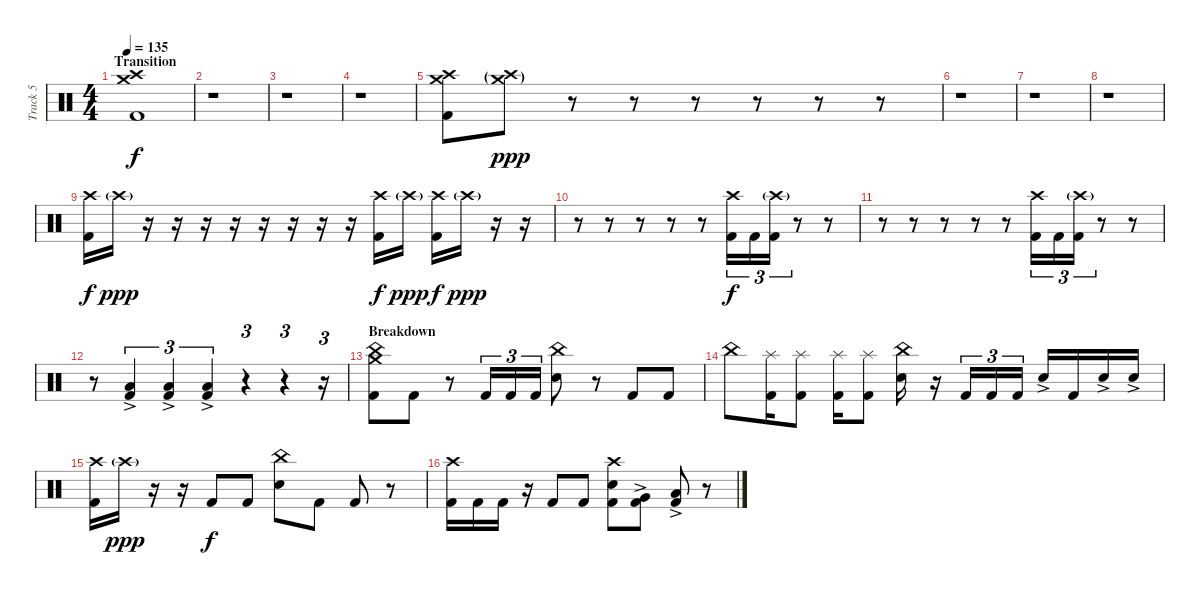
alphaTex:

\track ("Track 5" "Track 5") {instrument percussion}
\staff {score}
\articulation defaults
\ts (4 4)
\section ("" "Transition")
\tempo 135
\clef neutral
\ks c
("Crash medium (hit)" "Crash high (hit)" "Kick (hit) 2").1{dy f} |
r.1 |
r.1 |
r.1 |
("Crash medium (hit)" "Crash high (hit)" "Kick (hit) 2").8 ("Crash medium (hit)"{g} "Crash high (hit)"{g}).8{dy ppp} r.8 r.8 r.8 r.8 r.8 r.8 |
r.1 |
r.1 |
r.1 |
("Crash high (hit)" "Kick (hit) 2").16{dy f} "Crash high (hit)"{g}.16{dy ppp} r.16 r.16 r.16 r.16 r.16 r.16 r.16 r.16 ("Crash high (hit)" "Kick (hit) 2").16{dy f} "Crash high (hit)"{g}.16{dy ppp} ("Crash high (hit)" "Kick (hit) 2").16{dy f} "Crash high (hit)"{g}.16{dy ppp} r.16 r.16 |
r.8 r.8 r.8 r.8 r.8 ("Crash high (hit)" "Kick (hit) 2").16{tu (3 2) dy f} "Kick (hit) 2".16{tu (3 2)} ("Crash high (hit)"{g} "Kick (hit) 2").16{tu (3 2)} r.8 r.8 |
r.8 r.8 r.8 r.8 r.8 ("Crash high (hit)" "Kick (hit) 2").16{tu (3 2)} "Kick (hit) 2".16{tu (3 2)} ("Crash high (hit)"{g} "Kick (hit) 2").16{tu (3 2)} r.8 r.8 |
r.8 ("Low Floor Tom (hit)"{ac} "Kick (hit) 2").4{tu (3 2)} ("Low Floor Tom (hit)"{ac} "Kick (hit) 2").4{tu (3 2)} ("Low Floor Tom (hit)"{ac} "Kick (hit) 2").4{tu (3 2)} r.4{tu (3 2)} r.4{tu (3 2)} r.16{tu (3 2)} |
\section ("" "Breakdown")
("Crash medium (hit)" "China (hit)" "Kick (hit) 2").8 "Kick (hit) 2".8 r.8 "Kick (hit) 2".16{tu (3 2)} "Kick (hit) 2".16{tu (3 2)} "Kick (hit) 2".16{tu (3 2)} ("Electric Snare (hit)" "China (hit)").8 r.8 "Kick (hit) 2".8 "Kick (hit) 2".8 |
"China (hit)".8 ("Splash (hit)" "Kick (hit) 2").16 ("Splash (hit)" "Kick (hit) 2").8 ("Splash (hit)" "Kick (hit) 2").16 ("Splash (hit)" "Kick (hit) 2").8 ("Electric Snare (hit)" "China (hit)").16 r.16 "Kick (hit) 2".16{tu (3 2)} "Kick (hit) 2".16{tu (3 2)} "Kick (hit) 2".16{tu (3 2)} "Electric Snare (hit)"{ac}.16 "Kick (hit) 2".16 "Electric Snare (hit)"{ac}.16 "Electric Snare (hit)"{ac}.16 |
("Crash high (hit)" "Kick (hit) 2").16 "Crash high (hit)"{g}.16{dy ppp} r.16 r.16 "Kick (hit) 2".8{dy f} "Kick (hit) 2".8 ("Electric Snare (hit)" "China (hit)").8 "Kick (hit) 2".8 "Kick (hit) 2".8 r.8 |
("Crash high (hit)" "Kick (hit) 2").16 "Kick (hit) 2".16 "Kick (hit) 2".16 r.16 "Kick (hit) 2".8 "Kick (hit) 2".8 ("Electric Snare (hit)" "Crash high (hit)" "Kick (hit) 2").8 ("Very Low Tom (hit)"{ac} "Kick (hit) 2").8 ("Low Floor Tom (hit)"{ac} "Kick (hit) 2").8 r.8
